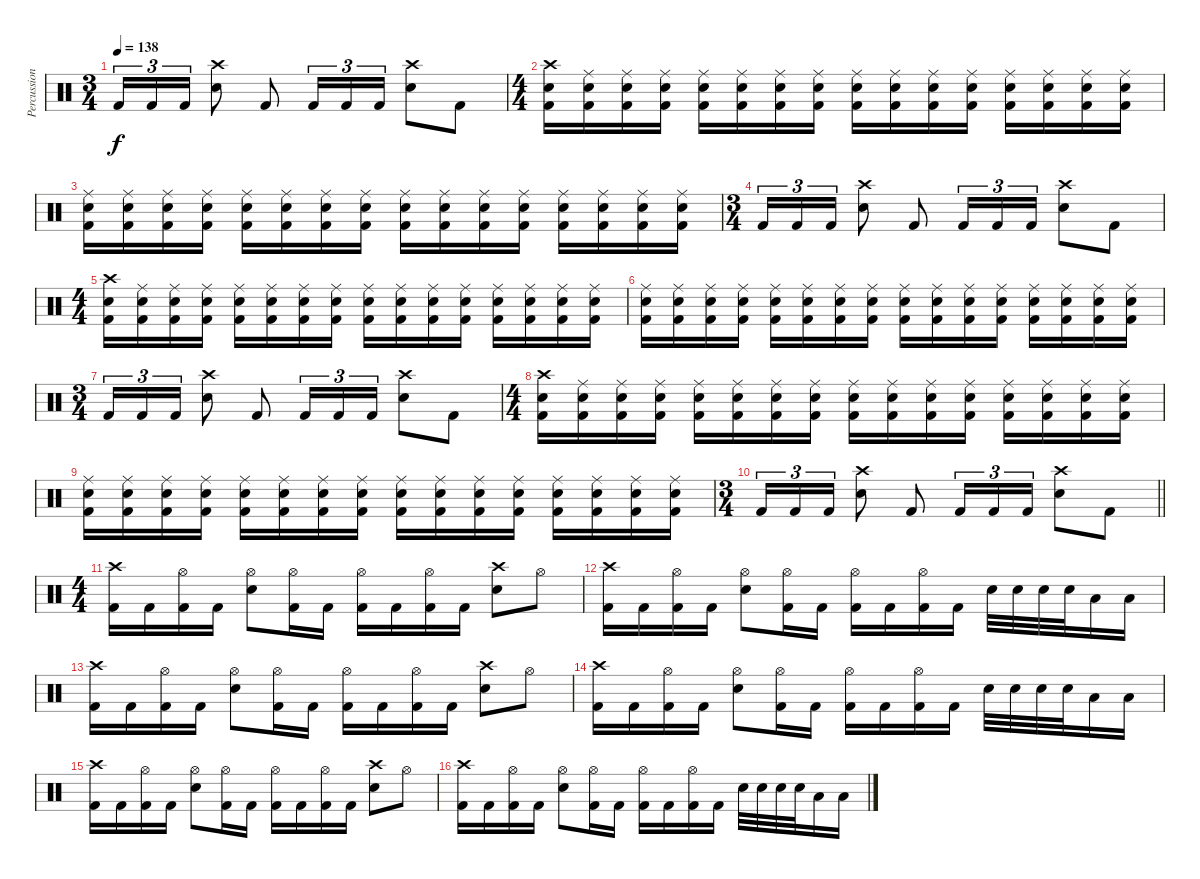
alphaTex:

\track ("Percussion" "Percussion") {instrument percussion}
\staff {score}
\articulation defaults
\ts (3 4)
\tempo 138
\clef neutral
\ks c "Kick (hit) 2".16{tu (3 2) dy f} "Kick (hit) 2".16{tu (3 2)} "Kick (hit) 2".16{tu (3 2)}
("Electric Snare (hit)" "Crash high (hit)").8 "Kick (hit) 2".8 "Kick (hit) 2".16{tu (3 2)} "Kick (hit) 2".16{tu (3 2)} "Kick (hit) 2".16{tu (3 2)} ("Electric Snare (hit)" "Crash high (hit)").8 "Kick (hit) 2".8 |
\ts (4 4)
("Kick (hit) 2" "Electric Snare (hit)" "Crash high (hit)").16 ("Kick (hit) 2" "Electric Snare (hit)" "Ride (middle)").16 ("Kick (hit) 2" "Electric Snare (hit)" "Ride (middle)").16 ("Kick (hit) 2" "Electric Snare (hit)" "Ride (middle)").16 ("Kick (hit) 2" "Electric Snare (hit)" "Ride (middle)").16 ("Kick (hit) 2" "Electric Snare (hit)" "Ride (middle)").16 ("Kick (hit) 2" "Electric Snare (hit)" "Ride (middle)").16 ("Kick (hit) 2" "Electric Snare (hit)" "Ride (middle)").16 ("Kick (hit) 2" "Electric Snare (hit)" "Ride (middle)").16 ("Kick (hit) 2" "Electric Snare (hit)" "Ride (middle)").16 ("Kick (hit) 2" "Electric Snare (hit)" "Ride (middle)").16 ("Kick (hit) 2" "Electric Snare (hit)" "Ride (middle)").16 ("Kick (hit) 2" "Electric Snare (hit)" "Ride (middle)").16 ("Kick (hit) 2" "Electric Snare (hit)" "Ride (middle)").16 ("Kick (hit) 2" "Electric Snare (hit)" "Ride (middle)").16 ("Kick (hit) 2" "Electric Snare (hit)" "Ride (middle)").16 |
("Kick (hit) 2" "Electric Snare (hit)" "Ride (middle)").16 ("Kick (hit) 2" "Electric Snare (hit)" "Ride (middle)").16 ("Kick (hit) 2" "Electric Snare (hit)" "Ride (middle)").16 ("Kick (hit) 2" "Electric Snare (hit)" "Ride (middle)").16 ("Kick (hit) 2" "Electric Snare (hit)" "Ride (middle)").16 ("Kick (hit) 2" "Electric Snare (hit)" "Ride (middle)").16 ("Kick (hit) 2" "Electric Snare (hit)" "Ride (middle)").16 ("Kick (hit) 2" "Electric Snare (hit)" "Ride (middle)").16 ("Kick (hit) 2" "Electric Snare (hit)" "Ride (middle)").16 ("Kick (hit) 2" "Electric Snare (hit)" "Ride (middle)").16 ("Kick (hit) 2" "Electric Snare (hit)" "Ride (middle)").16 ("Kick (hit) 2" "Electric Snare (hit)" "Ride (middle)").16 ("Kick (hit) 2" "Electric Snare (hit)" "Ride (middle)").16 ("Kick (hit) 2" "Electric Snare (hit)" "Ride (middle)").16 ("Kick (hit) 2" "Electric Snare (hit)" "Ride (middle)").16 ("Kick (hit) 2" "Electric Snare (hit)" "Ride (middle)").16 |
\ts (3 4)
"Kick (hit) 2".16{tu (3 2)} "Kick (hit) 2".16{tu (3 2)} "Kick (hit) 2".16{tu (3 2)} ("Electric Snare (hit)" "Crash high (hit)").8 "Kick (hit) 2".8 "Kick (hit) 2".16{tu (3 2)} "Kick (hit) 2".16{tu (3 2)} "Kick (hit) 2".16{tu (3 2)} ("Electric Snare (hit)" "Crash high (hit)").8 "Kick (hit) 2".8 |
\ts (4 4)
("Kick (hit) 2" "Electric Snare (hit)" "Crash high (hit)").16 ("Kick (hit) 2" "Electric Snare (hit)" "Ride (middle)").16 ("Kick (hit) 2" "Electric Snare (hit)" "Ride (middle)").16 ("Kick (hit) 2" "Electric Snare (hit)" "Ride (middle)").16 ("Kick (hit) 2" "Electric Snare (hit)" "Ride (middle)").16 ("Kick (hit) 2" "Electric Snare (hit)" "Ride (middle)").16 ("Kick (hit) 2" "Electric Snare (hit)" "Ride (middle)").16 ("Kick (hit) 2" "Electric Snare (hit)" "Ride (middle)").16 ("Kick (hit) 2" "Electric Snare (hit)" "Ride (middle)").16 ("Kick (hit) 2" "Electric Snare (hit)" "Ride (middle)").16 ("Kick (hit) 2" "Electric Snare (hit)" "Ride (middle)").16 ("Kick (hit) 2" "Electric Snare (hit)" "Ride (middle)").16 ("Kick (hit) 2" "Electric Snare (hit)" "Ride (middle)").16 ("Kick (hit) 2" "Electric Snare (hit)" "Ride (middle)").16 ("Kick (hit) 2" "Electric Snare (hit)" "Ride (middle)").16 ("Kick (hit) 2" "Electric Snare (hit)" "Ride (middle)").16 |
("Kick (hit) 2" "Electric Snare (hit)" "Ride (middle)").16 ("Kick (hit) 2" "Electric Snare (hit)" "Ride (middle)").16 ("Kick (hit) 2" "Electric Snare (hit)" "Ride (middle)").16 ("Kick (hit) 2" "Electric Snare (hit)" "Ride (middle)").16 ("Kick (hit) 2" "Electric Snare (hit)" "Ride (middle)").16 ("Kick (hit) 2" "Electric Snare (hit)" "Ride (middle)").16 ("Kick (hit) 2" "Electric Snare (hit)" "Ride (middle)").16 ("Kick (hit) 2" "Electric Snare (hit)" "Ride (middle)").16 ("Kick (hit) 2" "Electric Snare (hit)" "Ride (middle)").16 ("Kick (hit) 2" "Electric Snare (hit)" "Ride (middle)").16 ("Kick (hit) 2" "Electric Snare (hit)" "Ride (middle)").16 ("Kick (hit) 2" "Electric Snare (hit)" "Ride (middle)").16 ("Kick (hit) 2" "Electric Snare (hit)" "Ride (middle)").16 ("Kick (hit) 2" "Electric Snare (hit)" "Ride (middle)").16 ("Kick (hit) 2" "Electric Snare (hit)" "Ride (middle)").16 ("Kick (hit) 2" "Electric Snare (hit)" "Ride (middle)").16 |
\ts (3 4)
"Kick (hit) 2".16{tu (3 2)} "Kick (hit) 2".16{tu (3 2)} "Kick (hit) 2".16{tu (3 2)} ("Electric Snare (hit)" "Crash high (hit)").8 "Kick (hit) 2".8 "Kick (hit) 2".16{tu (3 2)} "Kick (hit) 2".16{tu (3 2)} "Kick (hit) 2".16{tu (3 2)} ("Electric Snare (hit)" "Crash high (hit)").8 "Kick (hit) 2".8 |
\ts (4 4)
("Kick (hit) 2" "Electric Snare (hit)" "Crash high (hit)").16 ("Kick (hit) 2" "Electric Snare (hit)" "Ride (middle)").16 ("Kick (hit) 2" "Electric Snare (hit)" "Ride (middle)").16 ("Kick (hit) 2" "Electric Snare (hit)" "Ride (middle)").16 ("Kick (hit) 2" "Electric Snare (hit)" "Ride (middle)").16 ("Kick (hit) 2" "Electric Snare (hit)" "Ride (middle)").16 ("Kick (hit) 2" "Electric Snare (hit)" "Ride (middle)").16 ("Kick (hit) 2" "Electric Snare (hit)" "Ride (middle)").16 ("Kick (hit) 2" "Electric Snare (hit)" "Ride (middle)").16 ("Kick (hit) 2" "Electric Snare (hit)" "Ride (middle)").16 ("Kick (hit) 2" "Electric Snare (hit)" "Ride (middle)").16 ("Kick (hit) 2" "Electric Snare (hit)" "Ride (middle)").16 ("Kick (hit) 2" "Electric Snare (hit)" "Ride (middle)").16 ("Kick (hit) 2" "Electric Snare (hit)" "Ride (middle)").16 ("Kick (hit) 2" "Electric Snare (hit)" "Ride (middle)").16 ("Kick (hit) 2" "Electric Snare (hit)" "Ride (middle)").16 |
("Kick (hit) 2" "Electric Snare (hit)" "Ride (middle)").16 ("Kick (hit) 2" "Electric Snare (hit)" "Ride (middle)").16 ("Kick (hit) 2" "Electric Snare (hit)" "Ride (middle)").16 ("Kick (hit) 2" "Electric Snare (hit)" "Ride (middle)").16 ("Kick (hit) 2" "Electric Snare (hit)" "Ride (middle)").16 ("Kick (hit) 2" "Electric Snare (hit)" "Ride (middle)").16 ("Kick (hit) 2" "Electric Snare (hit)" "Ride (middle)").16 ("Kick (hit) 2" "Electric Snare (hit)" "Ride (middle)").16 ("Kick (hit) 2" "Electric Snare (hit)" "Ride (middle)").16 ("Kick (hit) 2" "Electric Snare (hit)" "Ride (middle)").16 ("Kick (hit) 2" "Electric Snare (hit)" "Ride (middle)").16 ("Kick (hit) 2" "Electric Snare (hit)" "Ride (middle)").16 ("Kick (hit) 2" "Electric Snare (hit)" "Ride (middle)").16 ("Kick (hit) 2" "Electric Snare (hit)" "Ride (middle)").16 ("Kick (hit) 2" "Electric Snare (hit)" "Ride (middle)").16 ("Kick (hit) 2" "Electric Snare (hit)" "Ride (middle)").16 |
\ts (3 4)
\barLineRight lightlight "Kick (hit) 2".16{tu (3 2)} "Kick (hit) 2".16{tu (3 2)} "Kick (hit) 2".16{tu (3 2)}
("Electric Snare (hit)" "Crash high (hit)").8 "Kick (hit) 2".8 "Kick (hit) 2".16{tu (3 2)} "Kick (hit) 2".16{tu (3 2)} "Kick (hit) 2".16{tu (3 2)} ("Electric Snare (hit)" "Crash high (hit)").8 "Kick (hit) 2".8 |
\ts (4 4)
\section ("" "")
("Kick (hit) 2" "Crash high (hit)").16 "Kick (hit) 2".16 ("Kick (hit) 2" "Hi-Hat (open)").16 "Kick (hit) 2".16 ("Electric Snare (hit)" "Hi-Hat (open)").8 ("Kick (hit) 2" "Hi-Hat (open)").16 "Kick (hit) 2".16 ("Kick (hit) 2" "Hi-Hat (open)").16 "Kick (hit) 2".16 ("Kick (hit) 2" "Hi-Hat (open)").16 "Kick (hit) 2".16 ("Electric Snare (hit)" "Crash high (hit)").8 "Hi-Hat (open)".8 |
("Kick (hit) 2" "Crash high (hit)").16 "Kick (hit) 2".16 ("Kick (hit) 2" "Hi-Hat (open)").16 "Kick (hit) 2".16 ("Electric Snare (hit)" "Hi-Hat (open)").8 ("Kick (hit) 2" "Hi-Hat (open)").16 "Kick (hit) 2".16 ("Kick (hit) 2" "Hi-Hat (open)").16 "Kick (hit) 2".16 ("Kick (hit) 2" "Hi-Hat (open)").16 "Kick (hit) 2".16 "Electric Snare (hit)".32 "Electric Snare (hit)".32 "Electric Snare (hit)".32 "Electric Snare (hit)".32 "Low Tom (hit)".16 "Low Tom (hit)".16 |
("Kick (hit) 2" "Crash high (hit)").16 "Kick (hit) 2".16 ("Kick (hit) 2" "Hi-Hat (open)").16 "Kick (hit) 2".16 ("Electric Snare (hit)" "Hi-Hat (open)").8 ("Kick (hit) 2" "Hi-Hat (open)").16 "Kick (hit) 2".16 ("Kick (hit) 2" "Hi-Hat (open)").16 "Kick (hit) 2".16 ("Kick (hit) 2" "Hi-Hat (open)").16 "Kick (hit) 2".16 ("Electric Snare (hit)" "Crash high (hit)").8 "Hi-Hat (open)".8 |
("Kick (hit) 2" "Crash high (hit)").16 "Kick (hit) 2".16 ("Kick (hit) 2" "Hi-Hat (open)").16 "Kick (hit) 2".16 ("Electric Snare (hit)" "Hi-Hat (open)").8 ("Kick (hit) 2" "Hi-Hat (open)").16 "Kick (hit) 2".16 ("Kick (hit) 2" "Hi-Hat (open)").16 "Kick (hit) 2".16 ("Kick (hit) 2" "Hi-Hat (open)").16 "Kick (hit) 2".16 "Electric Snare (hit)".32 "Electric Snare (hit)".32 "Electric Snare (hit)".32 "Electric Snare (hit)".32 "Low Tom (hit)".16 "Low Tom (hit)".16 |
("Kick (hit) 2" "Crash high (hit)").16 "Kick (hit) 2".16 ("Kick (hit) 2" "Hi-Hat (open)").16 "Kick (hit) 2".16 ("Electric Snare (hit)" "Hi-Hat (open)").8 ("Kick (hit) 2" "Hi-Hat (open)").16 "Kick (hit) 2".16 ("Kick (hit) 2" "Hi-Hat (open)").16 "Kick (hit) 2".16 ("Kick (hit) 2" "Hi-Hat (open)").16 "Kick (hit) 2".16 ("Electric Snare (hit)" "Crash high (hit)").8 "Hi-Hat (open)".8 |
("Kick (hit) 2" "Crash high (hit)").16 "Kick (hit) 2".16 ("Kick (hit) 2" "Hi-Hat (open)").16 "Kick (hit) 2".16 ("Electric Snare (hit)" "Hi-Hat (open)").8 ("Kick (hit) 2" "Hi-Hat (open)").16 "Kick (hit) 2".16 ("Kick (hit) 2" "Hi-Hat (open)").16 "Kick (hit) 2".16 ("Kick (hit) 2" "Hi-Hat (open)").16 "Kick (hit) 2".16 "Electric Snare (hit)".32 "Electric Snare (hit)".32 "Electric Snare (hit)".32 "Electric Snare (hit)".32 "Low Tom (hit)".16 "Low Tom (hit)".16
